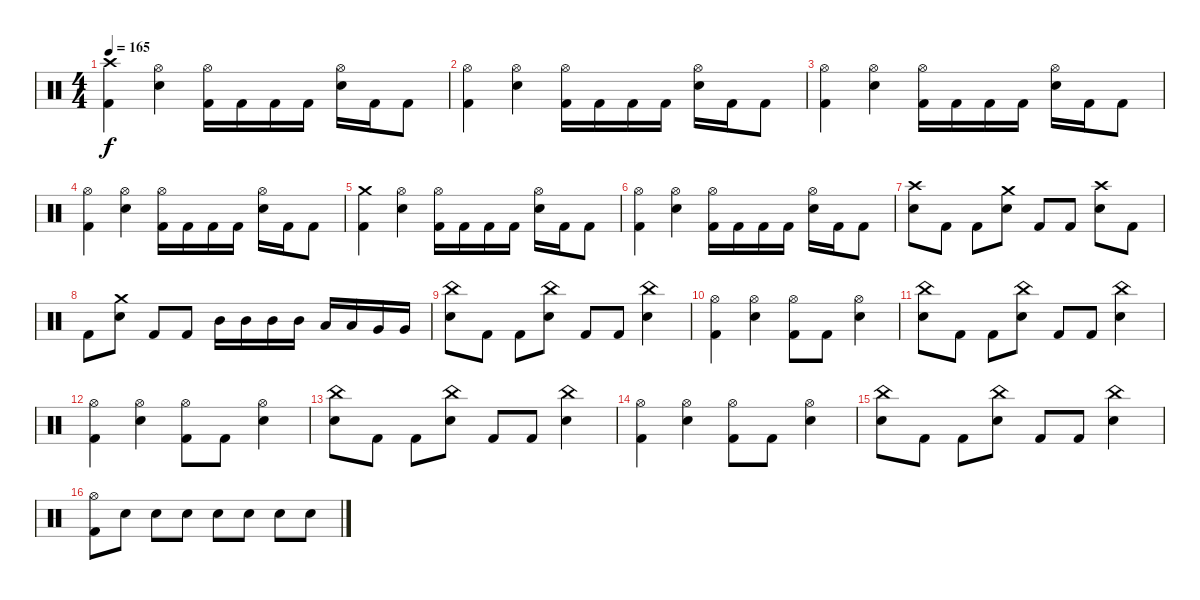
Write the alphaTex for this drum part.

\track "" {instrument percussion}
\staff {score}
\articulation defaults
\ts (4 4)
\tempo 165
\clef neutral
\ks c
("Kick (hit) 2" "Crash high (hit)").4{dy f} ("Electric Snare (hit)" "Hi-Hat (open)").4 ("Hi-Hat (open)" "Kick (hit) 2").16 "Kick (hit) 2".16 "Kick (hit) 2".16 "Kick (hit) 2".16 ("Hi-Hat (open)" "Electric Snare (hit)").16 "Kick (hit) 2".16 "Kick (hit) 2".8 |
("Kick (hit) 2" "Hi-Hat (open)").4 ("Electric Snare (hit)" "Hi-Hat (open)").4 ("Kick (hit) 2" "Hi-Hat (open)").16 "Kick (hit) 2".16 "Kick (hit) 2".16 "Kick (hit) 2".16 ("Electric Snare (hit)" "Hi-Hat (open)").16 "Kick (hit) 2".16 "Kick (hit) 2".8 |
("Kick (hit) 2" "Hi-Hat (open)").4 ("Electric Snare (hit)" "Hi-Hat (open)").4 ("Hi-Hat (open)" "Kick (hit) 2").16 "Kick (hit) 2".16 "Kick (hit) 2".16 "Kick (hit) 2".16 ("Hi-Hat (open)" "Electric Snare (hit)").16 "Kick (hit) 2".16 "Kick (hit) 2".8 |
("Kick (hit) 2" "Hi-Hat (open)").4 ("Electric Snare (hit)" "Hi-Hat (open)").4 ("Kick (hit) 2" "Hi-Hat (open)").16 "Kick (hit) 2".16 "Kick (hit) 2".16 "Kick (hit) 2".16 ("Electric Snare (hit)" "Hi-Hat (open)").16 "Kick (hit) 2".16 "Kick (hit) 2".8 |
("Kick (hit) 2" "Crash medium (hit)").4 ("Electric Snare (hit)" "Hi-Hat (open)").4 ("Hi-Hat (open)" "Kick (hit) 2").16 "Kick (hit) 2".16 "Kick (hit) 2".16 "Kick (hit) 2".16 ("Hi-Hat (open)" "Electric Snare (hit)").16 "Kick (hit) 2".16 "Kick (hit) 2".8 |
("Kick (hit) 2" "Hi-Hat (open)").4 ("Electric Snare (hit)" "Hi-Hat (open)").4 ("Kick (hit) 2" "Hi-Hat (open)").16 "Kick (hit) 2".16 "Kick (hit) 2".16 "Kick (hit) 2".16 ("Electric Snare (hit)" "Hi-Hat (open)").16 "Kick (hit) 2".16 "Kick (hit) 2".8 |
("Crash high (hit)" "Electric Snare (hit)").8 "Kick (hit) 2".8 "Kick (hit) 2".8 ("Crash medium (hit)" "Electric Snare (hit)").8 "Kick (hit) 2".8 "Kick (hit) 2".8 ("Crash high (hit)" "Electric Snare (hit)").8 "Kick (hit) 2".8 |
"Kick (hit) 2".8 ("Crash medium (hit)" "Electric Snare (hit)").8 "Kick (hit) 2".8 "Kick (hit) 2".8 "Mid Tom (hit)".16 "Mid Tom (hit)".16 "Mid Tom (hit)".16 "Mid Tom (hit)".16 "Low Tom (hit)".16 "Low Tom (hit)".16 "Very Low Tom (hit)".16 "Very Low Tom (hit)".16 |
("China (hit)" "Electric Snare (hit)").8 "Kick (hit) 2".8 "Kick (hit) 2".8 ("China (hit)" "Electric Snare (hit)").8 "Kick (hit) 2".8 "Kick (hit) 2".8 ("China (hit)" "Electric Snare (hit)").4 |
("Hi-Hat (open)" "Kick (hit) 2").4 ("Hi-Hat (open)" "Electric Snare (hit)").4 ("Kick (hit) 2" "Hi-Hat (open)").8 "Kick (hit) 2".8 ("Hi-Hat (open)" "Electric Snare (hit)").4 |
("China (hit)" "Electric Snare (hit)").8 "Kick (hit) 2".8 "Kick (hit) 2".8 ("China (hit)" "Electric Snare (hit)").8 "Kick (hit) 2".8 "Kick (hit) 2".8 ("China (hit)" "Electric Snare (hit)").4 |
("Hi-Hat (open)" "Kick (hit) 2").4 ("Hi-Hat (open)" "Electric Snare (hit)").4 ("Kick (hit) 2" "Hi-Hat (open)").8 "Kick (hit) 2".8 ("Hi-Hat (open)" "Electric Snare (hit)").4 |
("China (hit)" "Electric Snare (hit)").8 "Kick (hit) 2".8 "Kick (hit) 2".8 ("China (hit)" "Electric Snare (hit)").8 "Kick (hit) 2".8 "Kick (hit) 2".8 ("China (hit)" "Electric Snare (hit)").4 |
("Hi-Hat (open)" "Kick (hit) 2").4 ("Hi-Hat (open)" "Electric Snare (hit)").4 ("Kick (hit) 2" "Hi-Hat (open)").8 "Kick (hit) 2".8 ("Hi-Hat (open)" "Electric Snare (hit)").4 |
("China (hit)" "Electric Snare (hit)").8 "Kick (hit) 2".8 "Kick (hit) 2".8 ("China (hit)" "Electric Snare (hit)").8 "Kick (hit) 2".8 "Kick (hit) 2".8 ("China (hit)" "Electric Snare (hit)").4 |
("Kick (hit) 2" "Hi-Hat (open)").8 "Electric Snare (hit)".8 "Electric Snare (hit)".8 "Electric Snare (hit)".8 "Electric Snare (hit)".8 "Electric Snare (hit)".8 "Electric Snare (hit)".8 "Electric Snare (hit)".8
